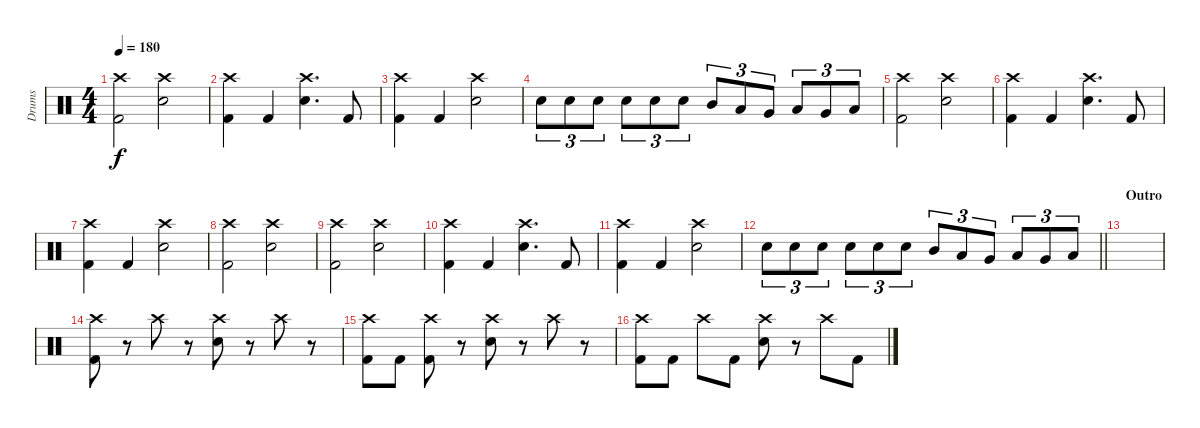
\track ("Drums" "Drums") {instrument percussion}
\staff {score}
\articulation defaults
\ts (4 4)
\tempo 180
\clef neutral
\ks c
("Kick (hit) 2" "Crash high (hit)").2{dy f} ("Crash high (hit)" "Electric Snare (hit)").2 |
("Crash high (hit)" "Kick (hit) 2").4 "Kick (hit) 2".4 ("Crash high (hit)" "Electric Snare (hit)").4{d} "Kick (hit) 2".8 |
("Crash high (hit)" "Kick (hit) 2").4 "Kick (hit) 2".4 ("Crash high (hit)" "Electric Snare (hit)").2 |
"Electric Snare (hit)".8{tu (3 2)} "Electric Snare (hit)".8{tu (3 2)} "Electric Snare (hit)".8{tu (3 2)} "Electric Snare (hit)".8{tu (3 2)} "Electric Snare (hit)".8{tu (3 2)} "Electric Snare (hit)".8{tu (3 2)} "Mid Tom (hit)".8{tu (3 2)} "Low Tom (hit)".8{tu (3 2)} "Very Low Tom (hit)".8{tu (3 2)} "Low Tom (hit)".8{tu (3 2)} "Very Low Tom (hit)".8{tu (3 2)} "Low Floor Tom (hit)".8{tu (3 2)} |
("Kick (hit) 2" "Crash high (hit)").2 ("Crash high (hit)" "Electric Snare (hit)").2 |
("Crash high (hit)" "Kick (hit) 2").4 "Kick (hit) 2".4 ("Crash high (hit)" "Electric Snare (hit)").4{d} "Kick (hit) 2".8 |
("Crash high (hit)" "Kick (hit) 2").4 "Kick (hit) 2".4 ("Crash high (hit)" "Electric Snare (hit)").2 |
("Crash high (hit)" "Kick (hit) 2").2 ("Crash high (hit)" "Electric Snare (hit)").2 |
("Kick (hit) 2" "Crash high (hit)").2 ("Crash high (hit)" "Electric Snare (hit)").2 |
("Crash high (hit)" "Kick (hit) 2").4 "Kick (hit) 2".4 ("Crash high (hit)" "Electric Snare (hit)").4{d} "Kick (hit) 2".8 |
("Crash high (hit)" "Kick (hit) 2").4 "Kick (hit) 2".4 ("Crash high (hit)" "Electric Snare (hit)").2 |
\barLineRight lightlight "Electric Snare (hit)".8{tu (3 2)} "Electric Snare (hit)".8{tu (3 2)} "Electric Snare (hit)".8{tu (3 2)} "Electric Snare (hit)".8{tu (3 2)} "Electric Snare (hit)".8{tu (3 2)} "Electric Snare (hit)".8{tu (3 2)} "Mid Tom (hit)".8{tu (3 2)} "Low Tom (hit)".8{tu (3 2)} "Very Low Tom (hit)".8{tu (3 2)} "Low Tom (hit)".8{tu (3 2)} "Very Low Tom (hit)".8{tu (3 2)} "Low Floor Tom (hit)".8{tu (3 2)}
|
\section ("" "Outro")
|
("Crash high (hit)" "Kick (hit) 2").8 r.8 "Crash high (hit)".8 r.8 ("Crash high (hit)" "Electric Snare (hit)").8 r.8 "Crash high (hit)".8 r.8 |
("Crash high (hit)" "Kick (hit) 2").8 "Kick (hit) 2".8 ("Crash high (hit)" "Kick (hit) 2").8 r.8 ("Crash high (hit)" "Electric Snare (hit)").8 r.8 "Crash high (hit)".8 r.8 |
("Crash high (hit)" "Kick (hit) 2").8 "Kick (hit) 2".8 "Crash high (hit)".8 "Kick (hit) 2".8 ("Crash high (hit)" "Electric Snare (hit)").8 r.8 "Crash high (hit)".8 "Kick (hit) 2".8
